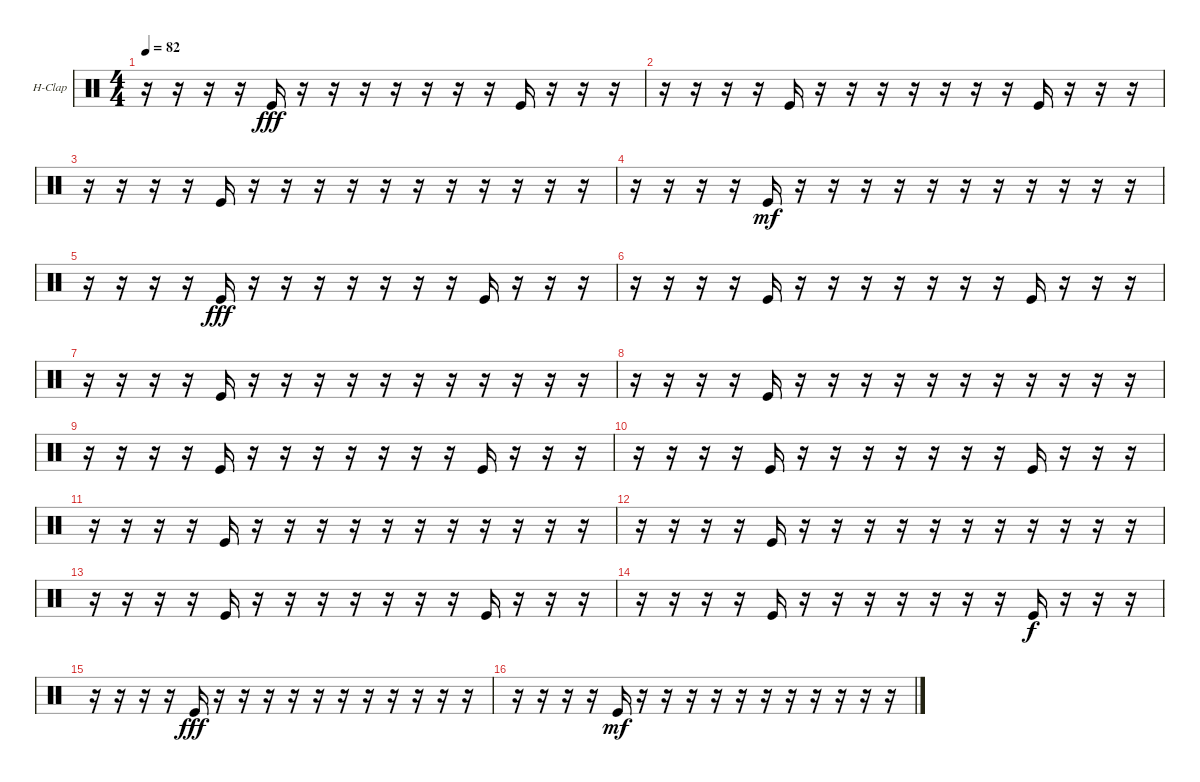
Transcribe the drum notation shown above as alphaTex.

\bracketExtendMode groupsimilarinstruments
\firstSystemTrackNameOrientation horizontal
\otherSystemsTrackNameOrientation horizontal
\track ("Hand Clap" "H-Clap") {instrument percussion}
\staff {score}
\articulation defaults
\ts (4 4)
\tempo 82
\clef neutral
\ks c
r.16{dy fff} r.16 r.16 r.16 "Kick (hit)".16 r.16 r.16 r.16 r.16 r.16 r.16 r.16 "Kick (hit)".16 r.16 r.16 r.16 |
r.16 r.16 r.16 r.16 "Kick (hit)".16 r.16 r.16 r.16 r.16 r.16 r.16 r.16 "Kick (hit)".16 r.16 r.16 r.16 |
r.16 r.16 r.16 r.16 "Kick (hit)".16 r.16 r.16 r.16 r.16 r.16 r.16 r.16 r.16 r.16 r.16 r.16 |
r.16 r.16 r.16 r.16 "Kick (hit)".16{dy mf} r.16 r.16 r.16 r.16 r.16 r.16 r.16 r.16 r.16 r.16 r.16 |
r.16 r.16 r.16 r.16 "Kick (hit)".16{dy fff} r.16 r.16 r.16 r.16 r.16 r.16 r.16 "Kick (hit)".16 r.16 r.16 r.16 |
r.16 r.16 r.16 r.16 "Kick (hit)".16 r.16 r.16 r.16 r.16 r.16 r.16 r.16 "Kick (hit)".16 r.16 r.16 r.16 |
r.16 r.16 r.16 r.16 "Kick (hit)".16 r.16 r.16 r.16 r.16 r.16 r.16 r.16 r.16 r.16 r.16 r.16 |
r.16 r.16 r.16 r.16 "Kick (hit)".16 r.16 r.16 r.16 r.16 r.16 r.16 r.16 r.16 r.16 r.16 r.16 |
r.16 r.16 r.16 r.16 "Kick (hit)".16 r.16 r.16 r.16 r.16 r.16 r.16 r.16 "Kick (hit)".16 r.16 r.16 r.16 |
r.16 r.16 r.16 r.16 "Kick (hit)".16 r.16 r.16 r.16 r.16 r.16 r.16 r.16 "Kick (hit)".16 r.16 r.16 r.16 |
r.16 r.16 r.16 r.16 "Kick (hit)".16 r.16 r.16 r.16 r.16 r.16 r.16 r.16 r.16 r.16 r.16 r.16 |
r.16 r.16 r.16 r.16 "Kick (hit)".16 r.16 r.16 r.16 r.16 r.16 r.16 r.16 r.16 r.16 r.16 r.16 |
r.16 r.16 r.16 r.16 "Kick (hit)".16 r.16 r.16 r.16 r.16 r.16 r.16 r.16 "Kick (hit)".16 r.16 r.16 r.16 |
r.16 r.16 r.16 r.16 "Kick (hit)".16 r.16 r.16 r.16 r.16 r.16 r.16 r.16 "Kick (hit)".16{dy f} r.16 r.16 r.16 |
r.16 r.16 r.16 r.16 "Kick (hit)".16{dy fff} r.16 r.16 r.16 r.16 r.16 r.16 r.16 r.16 r.16 r.16 r.16 |
r.16 r.16 r.16 r.16 "Kick (hit)".16{dy mf} r.16 r.16 r.16 r.16 r.16 r.16 r.16 r.16 r.16 r.16 r.16
